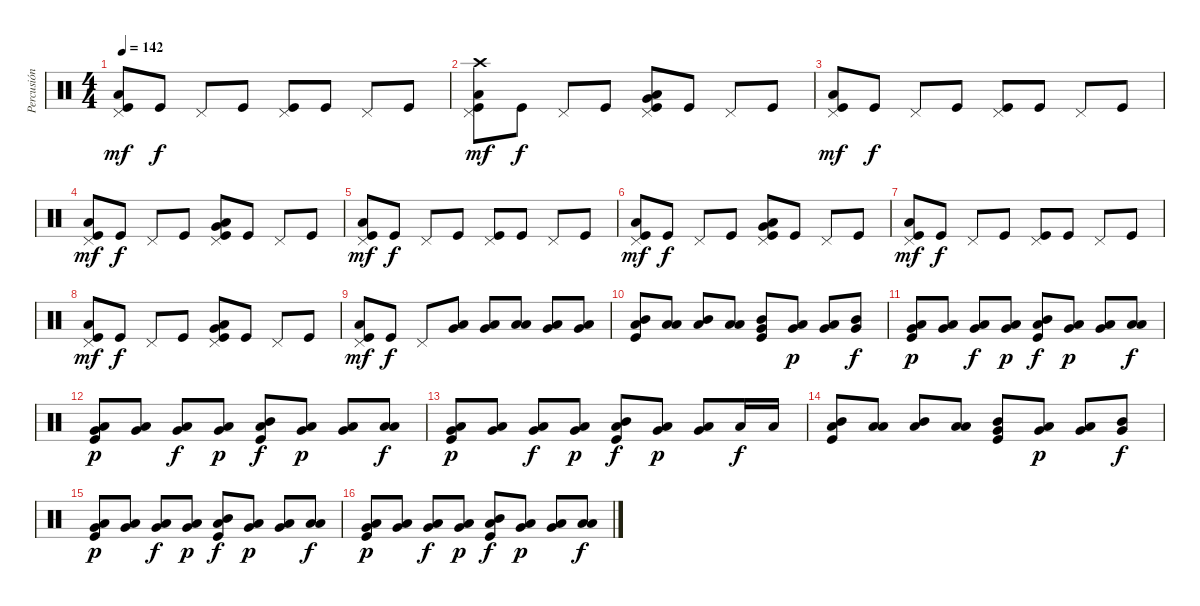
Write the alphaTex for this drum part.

\track ("Percusión" "Percusión") {instrument percussion}
\staff {score}
\articulation defaults
\ts (4 4)
\tempo 142
\clef neutral
\ks c
("Pedal Hi-Hat (hit)" "Kick (hit)" "Low Floor Tom (hit)").8{dy mf} "Kick (hit)".8{dy f} "Pedal Hi-Hat (hit)".8 "Kick (hit)".8 ("Pedal Hi-Hat (hit)" "Kick (hit)").8 "Kick (hit)".8 "Pedal Hi-Hat (hit)".8 "Kick (hit)".8 |
("Crash high (hit)" "Pedal Hi-Hat (hit)" "Kick (hit)" "Low Floor Tom (hit)").8{dy mf} "Kick (hit)".8{dy f} "Pedal Hi-Hat (hit)".8 "Kick (hit)".8 ("Pedal Hi-Hat (hit)" "Kick (hit)" "Low Tom (hit)" "Very Low Tom (hit)").8 "Kick (hit)".8 "Pedal Hi-Hat (hit)".8 "Kick (hit)".8 |
("Pedal Hi-Hat (hit)" "Kick (hit)" "Low Floor Tom (hit)").8{dy mf} "Kick (hit)".8{dy f} "Pedal Hi-Hat (hit)".8 "Kick (hit)".8 ("Pedal Hi-Hat (hit)" "Kick (hit)").8 "Kick (hit)".8 "Pedal Hi-Hat (hit)".8 "Kick (hit)".8 |
("Pedal Hi-Hat (hit)" "Kick (hit)" "Low Floor Tom (hit)").8{dy mf} "Kick (hit)".8{dy f} "Pedal Hi-Hat (hit)".8 "Kick (hit)".8 ("Pedal Hi-Hat (hit)" "Kick (hit)" "Low Tom (hit)" "Very Low Tom (hit)").8 "Kick (hit)".8 "Pedal Hi-Hat (hit)".8 "Kick (hit)".8 |
("Pedal Hi-Hat (hit)" "Kick (hit)" "Low Floor Tom (hit)").8{dy mf} "Kick (hit)".8{dy f} "Pedal Hi-Hat (hit)".8 "Kick (hit)".8 ("Pedal Hi-Hat (hit)" "Kick (hit)").8 "Kick (hit)".8 "Pedal Hi-Hat (hit)".8 "Kick (hit)".8 |
("Pedal Hi-Hat (hit)" "Kick (hit)" "Low Floor Tom (hit)").8{dy mf} "Kick (hit)".8{dy f} "Pedal Hi-Hat (hit)".8 "Kick (hit)".8 ("Pedal Hi-Hat (hit)" "Kick (hit)" "Low Tom (hit)" "Very Low Tom (hit)").8 "Kick (hit)".8 "Pedal Hi-Hat (hit)".8 "Kick (hit)".8 |
("Pedal Hi-Hat (hit)" "Kick (hit)" "Low Floor Tom (hit)").8{dy mf} "Kick (hit)".8{dy f} "Pedal Hi-Hat (hit)".8 "Kick (hit)".8 ("Pedal Hi-Hat (hit)" "Kick (hit)").8 "Kick (hit)".8 "Pedal Hi-Hat (hit)".8 "Kick (hit)".8 |
("Pedal Hi-Hat (hit)" "Kick (hit)" "Low Floor Tom (hit)").8{dy mf} "Kick (hit)".8{dy f} "Pedal Hi-Hat (hit)".8 "Kick (hit)".8 ("Pedal Hi-Hat (hit)" "Kick (hit)" "Low Tom (hit)" "Very Low Tom (hit)").8 "Kick (hit)".8 "Pedal Hi-Hat (hit)".8 "Kick (hit)".8 |
("Pedal Hi-Hat (hit)" "Kick (hit)" "Low Floor Tom (hit)").8{dy mf} "Kick (hit)".8{dy f} "Pedal Hi-Hat (hit)".8 ("Very Low Tom (hit)" "Low Tom (hit)").8 ("Very Low Tom (hit)" "Low Tom (hit)").8 ("Low Floor Tom (hit)" "Low Tom (hit)").8 ("Very Low Tom (hit)" "Low Floor Tom (hit)").8 ("Very Low Tom (hit)" "Low Floor Tom (hit)").8 |
("Mid Tom (hit)" "Low Floor Tom (hit)" "Kick (hit)").8 ("Low Tom (hit)" "Low Floor Tom (hit)").8 ("Mid Tom (hit)" "Low Floor Tom (hit)").8 ("Low Tom (hit)" "Low Floor Tom (hit)").8 ("Mid Tom (hit)" "Very Low Tom (hit)" "Kick (hit)").8 ("Very Low Tom (hit)" "Low Floor Tom (hit)").8{dy p} ("Very Low Tom (hit)" "Low Floor Tom (hit)").8 ("Mid Tom (hit)" "Very Low Tom (hit)").8{dy f} |
("Very Low Tom (hit)" "Low Floor Tom (hit)" "Kick (hit)").8{dy p} ("Very Low Tom (hit)" "Low Floor Tom (hit)").8 ("Low Tom (hit)" "Very Low Tom (hit)").8{dy f} ("Very Low Tom (hit)" "Low Floor Tom (hit)").8{dy p} ("Mid Tom (hit)" "Low Floor Tom (hit)" "Kick (hit)").8{dy f} ("Very Low Tom (hit)" "Low Floor Tom (hit)").8{dy p} ("Very Low Tom (hit)" "Low Floor Tom (hit)").8 ("Low Tom (hit)" "Low Floor Tom (hit)").8{dy f} |
("Very Low Tom (hit)" "Low Floor Tom (hit)" "Kick (hit)").8{dy p} ("Very Low Tom (hit)" "Low Floor Tom (hit)").8 ("Low Tom (hit)" "Very Low Tom (hit)").8{dy f} ("Very Low Tom (hit)" "Low Floor Tom (hit)").8{dy p} ("Mid Tom (hit)" "Low Floor Tom (hit)" "Kick (hit)").8{dy f} ("Very Low Tom (hit)" "Low Floor Tom (hit)").8{dy p} ("Very Low Tom (hit)" "Low Floor Tom (hit)").8 ("Low Tom (hit)" "Low Floor Tom (hit)").8{dy f} |
("Very Low Tom (hit)" "Low Floor Tom (hit)" "Kick (hit)").8{dy p} ("Very Low Tom (hit)" "Low Floor Tom (hit)").8 ("Low Tom (hit)" "Very Low Tom (hit)").8{dy f} ("Very Low Tom (hit)" "Low Floor Tom (hit)").8{dy p} ("Mid Tom (hit)" "Low Floor Tom (hit)" "Kick (hit)").8{dy f} ("Very Low Tom (hit)" "Low Floor Tom (hit)").8{dy p} ("Very Low Tom (hit)" "Low Floor Tom (hit)").8 "Low Tom (hit)".16{dy f} "Low Tom (hit)".16 |
("Mid Tom (hit)" "Low Floor Tom (hit)" "Kick (hit)").8 ("Low Tom (hit)" "Low Floor Tom (hit)").8 ("Mid Tom (hit)" "Low Floor Tom (hit)").8 ("Low Tom (hit)" "Low Floor Tom (hit)").8 ("Mid Tom (hit)" "Very Low Tom (hit)" "Kick (hit)").8 ("Very Low Tom (hit)" "Low Floor Tom (hit)").8{dy p} ("Very Low Tom (hit)" "Low Floor Tom (hit)").8 ("Mid Tom (hit)" "Very Low Tom (hit)").8{dy f} |
("Very Low Tom (hit)" "Low Floor Tom (hit)" "Kick (hit)").8{dy p} ("Very Low Tom (hit)" "Low Floor Tom (hit)").8 ("Low Tom (hit)" "Very Low Tom (hit)").8{dy f} ("Very Low Tom (hit)" "Low Floor Tom (hit)").8{dy p} ("Mid Tom (hit)" "Low Floor Tom (hit)" "Kick (hit)").8{dy f} ("Very Low Tom (hit)" "Low Floor Tom (hit)").8{dy p} ("Very Low Tom (hit)" "Low Floor Tom (hit)").8 ("Low Tom (hit)" "Low Floor Tom (hit)").8{dy f} |
("Very Low Tom (hit)" "Low Floor Tom (hit)" "Kick (hit)").8{dy p} ("Very Low Tom (hit)" "Low Floor Tom (hit)").8 ("Low Tom (hit)" "Very Low Tom (hit)").8{dy f} ("Very Low Tom (hit)" "Low Floor Tom (hit)").8{dy p} ("Mid Tom (hit)" "Low Floor Tom (hit)" "Kick (hit)").8{dy f} ("Very Low Tom (hit)" "Low Floor Tom (hit)").8{dy p} ("Very Low Tom (hit)" "Low Floor Tom (hit)").8 ("Low Tom (hit)" "Low Floor Tom (hit)").8{dy f}
